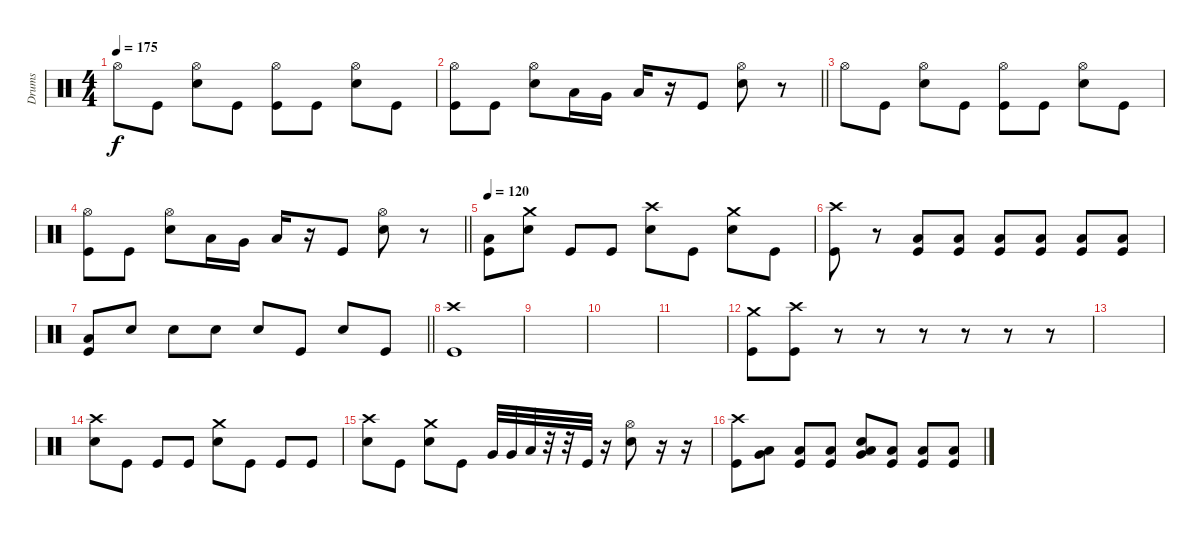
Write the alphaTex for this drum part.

\track ("Drums" "Drums") {instrument percussion}
\staff {score}
\articulation defaults
\ts (4 4)
\tempo 175
\clef neutral
\ks c "Hi-Hat (open)".8{dy f} "Kick (hit)".8
("Hi-Hat (open)" "Snare (hit) 2").8 "Kick (hit)".8 ("Hi-Hat (open)" "Kick (hit)").8 "Kick (hit)".8 ("Hi-Hat (open)" "Snare (hit) 2").8 "Kick (hit)".8 |
\barLineRight lightlight
("Hi-Hat (open)" "Kick (hit)").8 "Kick (hit)".8 ("Hi-Hat (open)" "Snare (hit) 2").8 "Low Tom (hit)".16 "Very Low Tom (hit)".16 "Low Floor Tom (hit)".16 r.16 "Kick (hit)".8 ("Hi-Hat (open)" "Snare (hit) 2").8 r.8 |
"Hi-Hat (open)".8 "Kick (hit)".8 ("Hi-Hat (open)" "Snare (hit) 2").8 "Kick (hit)".8 ("Hi-Hat (open)" "Kick (hit)").8 "Kick (hit)".8 ("Hi-Hat (open)" "Snare (hit) 2").8 "Kick (hit)".8 |
\barLineRight lightlight
("Hi-Hat (open)" "Kick (hit)").8 "Kick (hit)".8 ("Hi-Hat (open)" "Snare (hit) 2").8 "Low Tom (hit)".16 "Very Low Tom (hit)".16 "Low Floor Tom (hit)".16 r.16 "Kick (hit)".8 ("Hi-Hat (open)" "Snare (hit) 2").8 r.8 |
\tempo 120
("Low Floor Tom (hit)" "Kick (hit)").8 ("Crash medium (hit)" "Snare (hit) 2").8 "Kick (hit)".8 "Kick (hit)".8 ("Crash high (hit)" "Snare (hit) 2").8 "Kick (hit)".8 ("Crash medium (hit)" "Snare (hit) 2").8 "Kick (hit)".8 |
("Crash high (hit)" "Kick (hit)").8 r.8 ("Low Floor Tom (hit)" "Kick (hit)").8 ("Low Floor Tom (hit)" "Kick (hit)").8 ("Low Floor Tom (hit)" "Kick (hit)").8 ("Low Floor Tom (hit)" "Kick (hit)").8 ("Low Floor Tom (hit)" "Kick (hit)").8 ("Low Floor Tom (hit)" "Kick (hit)").8 |
\barLineRight lightlight
("Low Floor Tom (hit)" "Kick (hit)").8 "Snare (hit) 2".8 "Snare (hit) 2".8 "Snare (hit) 2".8 "Snare (hit) 2".8 "Kick (hit)".8 "Snare (hit) 2".8 "Kick (hit)".8 |
("Crash high (hit)" "Kick (hit)").1 |
|
|
|
("Crash medium (hit)" "Kick (hit)").8 ("Crash high (hit)" "Kick (hit)").8 r.8 r.8 r.8 r.8 r.8 r.8 |
|
("Crash high (hit)" "Snare (hit) 2").8 "Kick (hit)".8 "Kick (hit)".8 "Kick (hit)".8 ("Crash medium (hit)" "Snare (hit) 2").8 "Kick (hit)".8 "Kick (hit)".8 "Kick (hit)".8 |
("Crash high (hit)" "Snare (hit) 2").8 "Kick (hit)".8 ("Crash medium (hit)" "Snare (hit) 2").8 "Kick (hit)".8 "Very Low Tom (hit)".32 "Very Low Tom (hit)".32 "Low Floor Tom (hit)".32 r.32 r.32 "Kick (hit)".32 r.16 ("Hi-Hat (open)" "Snare (hit) 2").8 r.16 r.16 |
("Crash high (hit)" "Kick (hit)").8 ("Low Floor Tom (hit)" "Very Low Tom (hit)").8 ("Low Floor Tom (hit)" "Kick (hit)").8 ("Low Floor Tom (hit)" "Kick (hit)").8 ("Low Floor Tom (hit)" "Very Low Tom (hit)" "Snare (hit) 2").8 ("Low Floor Tom (hit)" "Kick (hit)").8 ("Low Floor Tom (hit)" "Kick (hit)").8 ("Low Floor Tom (hit)" "Kick (hit)").8
